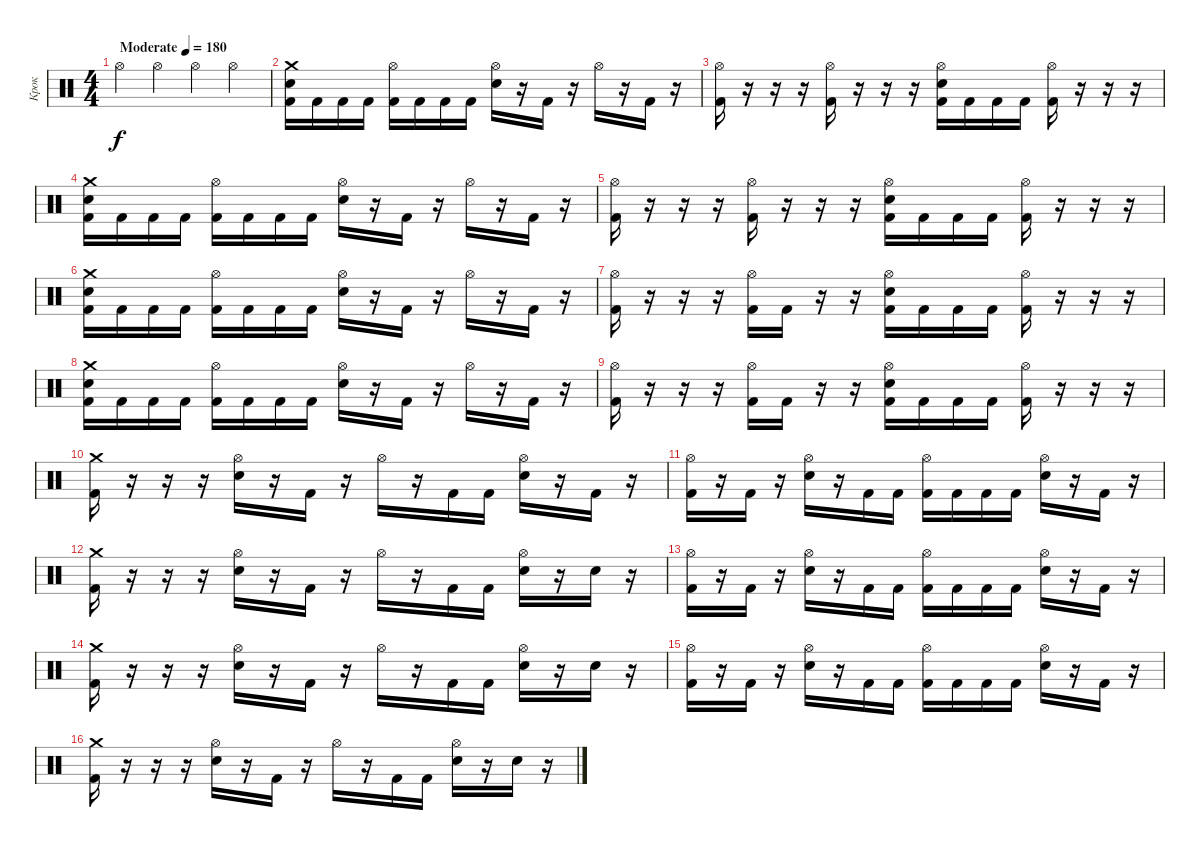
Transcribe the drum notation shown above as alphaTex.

\track ("Крок" "Крок") {instrument percussion}
\staff {score}
\articulation defaults
\ts (4 4)
\tempo (180 "Moderate")
\clef neutral
\ks c "Hi-Hat (open)".4{dy f} "Hi-Hat (open)".4 "Hi-Hat (open)".4 "Hi-Hat (open)".4
|
("Kick (hit) 2" "Electric Snare (hit)" "Crash medium (hit)").16 "Kick (hit) 2".16 "Kick (hit) 2".16 "Kick (hit) 2".16 ("Kick (hit) 2" "Hi-Hat (open)").16 "Kick (hit) 2".16 "Kick (hit) 2".16 "Kick (hit) 2".16 ("Electric Snare (hit)" "Hi-Hat (open)").16 r.16 "Kick (hit) 2".16 r.16 "Hi-Hat (open)".16 r.16 "Kick (hit) 2".16 r.16 |
("Kick (hit) 2" "Hi-Hat (open)").16 r.16 r.16 r.16 ("Kick (hit) 2" "Hi-Hat (open)").16 r.16 r.16 r.16 ("Kick (hit) 2" "Electric Snare (hit)" "Hi-Hat (open)").16 "Kick (hit) 2".16 "Kick (hit) 2".16 "Kick (hit) 2".16 ("Kick (hit) 2" "Hi-Hat (open)").16 r.16 r.16 r.16 |
("Kick (hit) 2" "Electric Snare (hit)" "Crash medium (hit)").16 "Kick (hit) 2".16 "Kick (hit) 2".16 "Kick (hit) 2".16 ("Kick (hit) 2" "Hi-Hat (open)").16 "Kick (hit) 2".16 "Kick (hit) 2".16 "Kick (hit) 2".16 ("Electric Snare (hit)" "Hi-Hat (open)").16 r.16 "Kick (hit) 2".16 r.16 "Hi-Hat (open)".16 r.16 "Kick (hit) 2".16 r.16 |
("Kick (hit) 2" "Hi-Hat (open)").16 r.16 r.16 r.16 ("Kick (hit) 2" "Hi-Hat (open)").16 r.16 r.16 r.16 ("Kick (hit) 2" "Electric Snare (hit)" "Hi-Hat (open)").16 "Kick (hit) 2".16 "Kick (hit) 2".16 "Kick (hit) 2".16 ("Kick (hit) 2" "Hi-Hat (open)").16 r.16 r.16 r.16 |
("Kick (hit) 2" "Electric Snare (hit)" "Crash medium (hit)").16 "Kick (hit) 2".16 "Kick (hit) 2".16 "Kick (hit) 2".16 ("Kick (hit) 2" "Hi-Hat (open)").16 "Kick (hit) 2".16 "Kick (hit) 2".16 "Kick (hit) 2".16 ("Electric Snare (hit)" "Hi-Hat (open)").16 r.16 "Kick (hit) 2".16 r.16 "Hi-Hat (open)".16 r.16 "Kick (hit) 2".16 r.16 |
("Kick (hit) 2" "Hi-Hat (open)").16 r.16 r.16 r.16 ("Kick (hit) 2" "Hi-Hat (open)").16 "Kick (hit) 2".16 r.16 r.16 ("Kick (hit) 2" "Electric Snare (hit)" "Hi-Hat (open)").16 "Kick (hit) 2".16 "Kick (hit) 2".16 "Kick (hit) 2".16 ("Kick (hit) 2" "Hi-Hat (open)").16 r.16 r.16 r.16 |
("Kick (hit) 2" "Electric Snare (hit)" "Crash medium (hit)").16 "Kick (hit) 2".16 "Kick (hit) 2".16 "Kick (hit) 2".16 ("Kick (hit) 2" "Hi-Hat (open)").16 "Kick (hit) 2".16 "Kick (hit) 2".16 "Kick (hit) 2".16 ("Electric Snare (hit)" "Hi-Hat (open)").16 r.16 "Kick (hit) 2".16 r.16 "Hi-Hat (open)".16 r.16 "Kick (hit) 2".16 r.16 |
("Kick (hit) 2" "Hi-Hat (open)").16 r.16 r.16 r.16 ("Kick (hit) 2" "Hi-Hat (open)").16 "Kick (hit) 2".16 r.16 r.16 ("Kick (hit) 2" "Electric Snare (hit)" "Hi-Hat (open)").16 "Kick (hit) 2".16 "Kick (hit) 2".16 "Kick (hit) 2".16 ("Kick (hit) 2" "Hi-Hat (open)").16 r.16 r.16 r.16 |
("Kick (hit) 2" "Crash medium (hit)").16 r.16 r.16 r.16 ("Electric Snare (hit)" "Hi-Hat (open)").16 r.16 "Kick (hit) 2".16 r.16 "Hi-Hat (open)".16 r.16 "Kick (hit) 2".16 "Kick (hit) 2".16 ("Electric Snare (hit)" "Hi-Hat (open)").16 r.16 "Kick (hit) 2".16 r.16 |
("Kick (hit) 2" "Hi-Hat (open)").16 r.16 "Kick (hit) 2".16 r.16 ("Electric Snare (hit)" "Hi-Hat (open)").16 r.16 "Kick (hit) 2".16 "Kick (hit) 2".16 ("Kick (hit) 2" "Hi-Hat (open)").16 "Kick (hit) 2".16 "Kick (hit) 2".16 "Kick (hit) 2".16 ("Electric Snare (hit)" "Hi-Hat (open)").16 r.16 "Kick (hit) 2".16 r.16 |
("Kick (hit) 2" "Crash medium (hit)").16 r.16 r.16 r.16 ("Electric Snare (hit)" "Hi-Hat (open)").16 r.16 "Kick (hit) 2".16 r.16 "Hi-Hat (open)".16 r.16 "Kick (hit) 2".16 "Kick (hit) 2".16 ("Electric Snare (hit)" "Hi-Hat (open)").16 r.16 "Electric Snare (hit)".16 r.16 |
("Kick (hit) 2" "Hi-Hat (open)").16 r.16 "Kick (hit) 2".16 r.16 ("Electric Snare (hit)" "Hi-Hat (open)").16 r.16 "Kick (hit) 2".16 "Kick (hit) 2".16 ("Kick (hit) 2" "Hi-Hat (open)").16 "Kick (hit) 2".16 "Kick (hit) 2".16 "Kick (hit) 2".16 ("Electric Snare (hit)" "Hi-Hat (open)").16 r.16 "Kick (hit) 2".16 r.16 |
("Kick (hit) 2" "Crash medium (hit)").16 r.16 r.16 r.16 ("Electric Snare (hit)" "Hi-Hat (open)").16 r.16 "Kick (hit) 2".16 r.16 "Hi-Hat (open)".16 r.16 "Kick (hit) 2".16 "Kick (hit) 2".16 ("Electric Snare (hit)" "Hi-Hat (open)").16 r.16 "Electric Snare (hit)".16 r.16 |
("Kick (hit) 2" "Hi-Hat (open)").16 r.16 "Kick (hit) 2".16 r.16 ("Electric Snare (hit)" "Hi-Hat (open)").16 r.16 "Kick (hit) 2".16 "Kick (hit) 2".16 ("Kick (hit) 2" "Hi-Hat (open)").16 "Kick (hit) 2".16 "Kick (hit) 2".16 "Kick (hit) 2".16 ("Electric Snare (hit)" "Hi-Hat (open)").16 r.16 "Kick (hit) 2".16 r.16 |
("Kick (hit) 2" "Crash medium (hit)").16 r.16 r.16 r.16 ("Electric Snare (hit)" "Hi-Hat (open)").16 r.16 "Kick (hit) 2".16 r.16 "Hi-Hat (open)".16 r.16 "Kick (hit) 2".16 "Kick (hit) 2".16 ("Electric Snare (hit)" "Hi-Hat (open)").16 r.16 "Electric Snare (hit)".16 r.16
